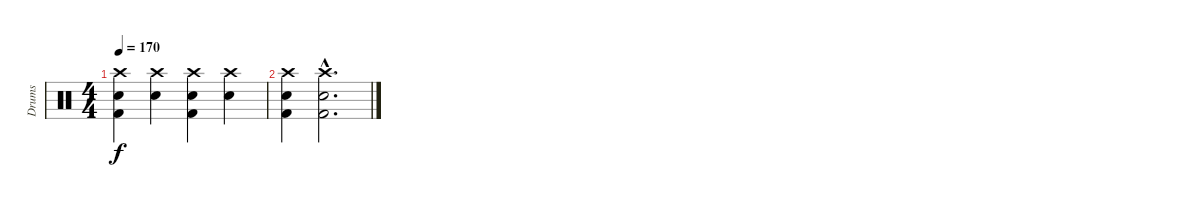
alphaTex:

\track ("Drums" "Drums") {instrument percussion}
\staff {score}
\articulation defaults
\ts (4 4)
\tempo 170
\clef neutral
\ks c
("Crash high (hit)" "Snare (hit) 2" "Kick (hit) 2").4{dy f} ("Crash high (hit)" "Snare (hit) 2").4 ("Crash high (hit)" "Snare (hit) 2" "Kick (hit) 2").4 ("Crash high (hit)" "Snare (hit) 2").4 |
("Crash high (hit)" "Snare (hit) 2" "Kick (hit) 2").4 ("Crash high (hit)"{hac} "Snare (hit) 2"{hac} "Kick (hit) 2"{hac}).2{d}
